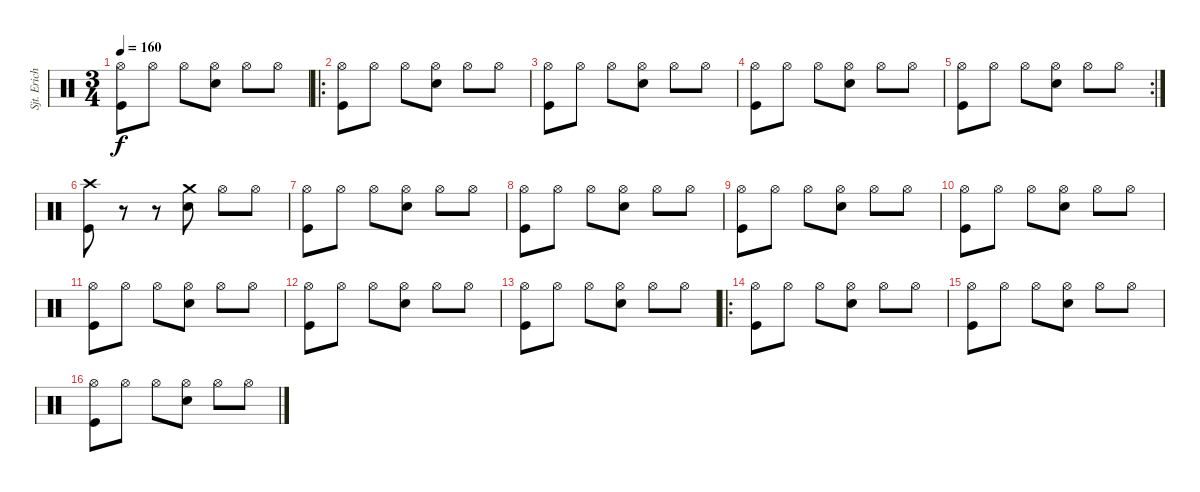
\track ("Sjt. Erichsen" "Sjt. Erich") {instrument percussion}
\staff {score}
\articulation defaults
\ts (3 4)
\tempo 160
\clef neutral
\ks c
("Hi-Hat (open)" "Kick (hit)").8{dy f} "Hi-Hat (open)".8 "Hi-Hat (open)".8 ("Hi-Hat (open)" "Electric Snare (hit)").8 "Hi-Hat (open)".8 "Hi-Hat (open)".8 |
\ro
("Hi-Hat (open)" "Kick (hit)").8 "Hi-Hat (open)".8 "Hi-Hat (open)".8 ("Hi-Hat (open)" "Electric Snare (hit)").8 "Hi-Hat (open)".8 "Hi-Hat (open)".8 |
("Hi-Hat (open)" "Kick (hit)").8 "Hi-Hat (open)".8 "Hi-Hat (open)".8 ("Hi-Hat (open)" "Electric Snare (hit)").8 "Hi-Hat (open)".8 "Hi-Hat (open)".8 |
("Hi-Hat (open)" "Kick (hit)").8 "Hi-Hat (open)".8 "Hi-Hat (open)".8 ("Hi-Hat (open)" "Electric Snare (hit)").8 "Hi-Hat (open)".8 "Hi-Hat (open)".8 |
\rc 2
("Hi-Hat (open)" "Kick (hit)").8 "Hi-Hat (open)".8 "Hi-Hat (open)".8 ("Hi-Hat (open)" "Electric Snare (hit)").8 "Hi-Hat (open)".8 "Hi-Hat (open)".8 |
("Crash high (hit)" "Kick (hit)").8 r.8 r.8 ("Crash medium (hit)" "Electric Snare (hit)").8 "Hi-Hat (open)".8 "Hi-Hat (open)".8 |
("Hi-Hat (open)" "Kick (hit)").8 "Hi-Hat (open)".8 "Hi-Hat (open)".8 ("Hi-Hat (open)" "Electric Snare (hit)").8 "Hi-Hat (open)".8 "Hi-Hat (open)".8 |
("Hi-Hat (open)" "Kick (hit)").8 "Hi-Hat (open)".8 "Hi-Hat (open)".8 ("Hi-Hat (open)" "Electric Snare (hit)").8 "Hi-Hat (open)".8 "Hi-Hat (open)".8 |
("Hi-Hat (open)" "Kick (hit)").8 "Hi-Hat (open)".8 "Hi-Hat (open)".8 ("Hi-Hat (open)" "Electric Snare (hit)").8 "Hi-Hat (open)".8 "Hi-Hat (open)".8 |
("Hi-Hat (open)" "Kick (hit)").8 "Hi-Hat (open)".8 "Hi-Hat (open)".8 ("Hi-Hat (open)" "Electric Snare (hit)").8 "Hi-Hat (open)".8 "Hi-Hat (open)".8 |
("Hi-Hat (open)" "Kick (hit)").8 "Hi-Hat (open)".8 "Hi-Hat (open)".8 ("Hi-Hat (open)" "Electric Snare (hit)").8 "Hi-Hat (open)".8 "Hi-Hat (open)".8 |
("Hi-Hat (open)" "Kick (hit)").8 "Hi-Hat (open)".8 "Hi-Hat (open)".8 ("Hi-Hat (open)" "Electric Snare (hit)").8 "Hi-Hat (open)".8 "Hi-Hat (open)".8 |
("Hi-Hat (open)" "Kick (hit)").8 "Hi-Hat (open)".8 "Hi-Hat (open)".8 ("Hi-Hat (open)" "Electric Snare (hit)").8 "Hi-Hat (open)".8 "Hi-Hat (open)".8 |
\ro
("Hi-Hat (open)" "Kick (hit)").8 "Hi-Hat (open)".8 "Hi-Hat (open)".8 ("Hi-Hat (open)" "Electric Snare (hit)").8 "Hi-Hat (open)".8 "Hi-Hat (open)".8 |
("Hi-Hat (open)" "Kick (hit)").8 "Hi-Hat (open)".8 "Hi-Hat (open)".8 ("Hi-Hat (open)" "Electric Snare (hit)").8 "Hi-Hat (open)".8 "Hi-Hat (open)".8 |
("Hi-Hat (open)" "Kick (hit)").8 "Hi-Hat (open)".8 "Hi-Hat (open)".8 ("Hi-Hat (open)" "Electric Snare (hit)").8 "Hi-Hat (open)".8 "Hi-Hat (open)".8
